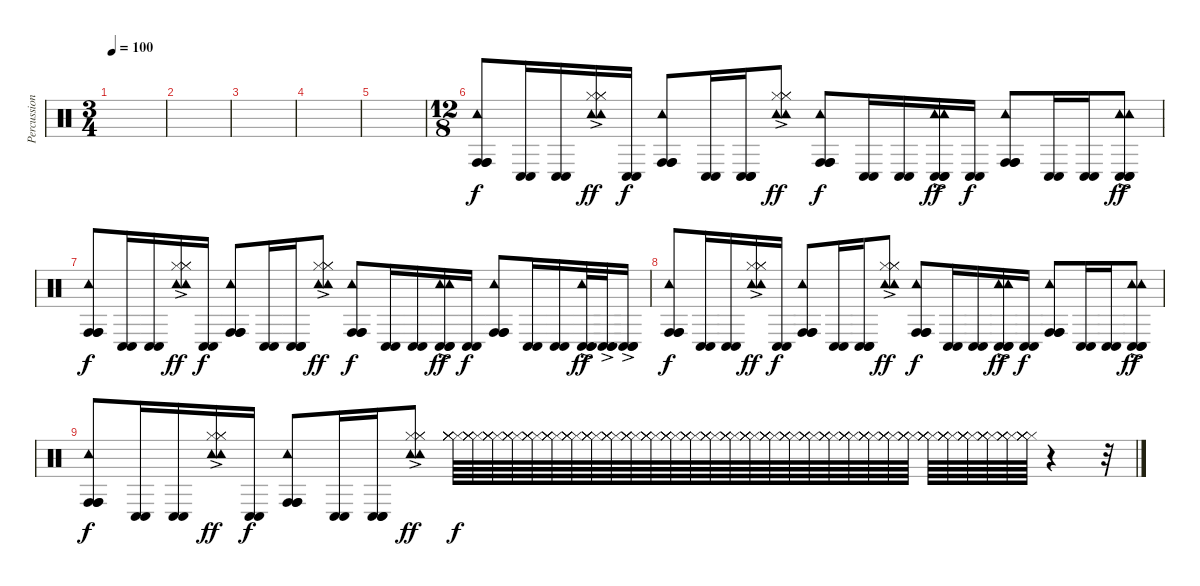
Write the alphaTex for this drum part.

\track ("Percussion" "Percussion") {instrument percussion}
\staff {score}
\articulation defaults
\ts (3 4)
\tempo 100
\clef neutral
\ks c
|
|
|
|
|
\ts (12 8)
("Tambourine (hit)" "Conga high (hit)" "Conga high (hit)" "Conga high (hit)").8 ("Conga low (hit)" "Conga low (hit)").16 ("Conga low (hit)" "Conga low (hit)").16 ("Tambourine (hit)" "Tambourine (hit)" "Hi-Hat (closed)" "Hi-Hat (closed)" "Hi-Hat (closed)"{ac}).16{dy ff} ("Conga low (hit)" "Conga low (hit)").16{dy f} ("Tambourine (hit)" "Conga high (hit)" "Conga high (hit)" "Conga high (hit)").8 ("Conga low (hit)" "Conga low (hit)").16 ("Conga low (hit)" "Conga low (hit)" "Conga low (hit)").16 ("Tambourine (hit)" "Tambourine (hit)" "Hi-Hat (closed)" "Hi-Hat (closed)" "Hi-Hat (closed)"{ac}).8{dy ff} ("Tambourine (hit)" "Conga high (hit)" "Conga high (hit)" "Conga high (hit)").8{dy f} ("Conga low (hit)" "Conga low (hit)").16 ("Conga low (hit)" "Conga low (hit)").16 ("Tambourine (hit)" "Tambourine (hit)" "Conga low (hit)" "Conga low (hit)" "Conga low (hit)"{ac}).16{dy ff} ("Conga low (hit)" "Conga low (hit)").16{dy f} ("Tambourine (hit)" "Conga high (hit)" "Conga high (hit)" "Conga high (hit)").8 ("Conga low (hit)" "Conga low (hit)").16 ("Conga low (hit)" "Conga low (hit)").16 ("Tambourine (hit)" "Tambourine (hit)" "Conga low (hit)" "Conga low (hit)" "Conga low (hit)"{ac}).8{dy ff} |
("Tambourine (hit)" "Conga high (hit)" "Conga high (hit)" "Conga high (hit)").8{dy f} ("Conga low (hit)" "Conga low (hit)").16 ("Conga low (hit)" "Conga low (hit)").16 ("Tambourine (hit)" "Tambourine (hit)" "Hi-Hat (closed)" "Hi-Hat (closed)" "Hi-Hat (closed)"{ac}).16{dy ff} ("Conga low (hit)" "Conga low (hit)").16{dy f} ("Tambourine (hit)" "Conga high (hit)" "Conga high (hit)" "Conga high (hit)").8 ("Conga low (hit)" "Conga low (hit)").16 ("Conga low (hit)" "Conga low (hit)" "Conga low (hit)").16 ("Tambourine (hit)" "Tambourine (hit)" "Hi-Hat (closed)" "Hi-Hat (closed)" "Hi-Hat (closed)"{ac}).8{dy ff} ("Tambourine (hit)" "Conga high (hit)" "Conga high (hit)" "Conga high (hit)").8{dy f} ("Conga low (hit)" "Conga low (hit)").16 ("Conga low (hit)" "Conga low (hit)").16 ("Tambourine (hit)" "Tambourine (hit)" "Conga low (hit)" "Conga low (hit)" "Conga low (hit)"{ac}).16{dy ff} ("Conga low (hit)" "Conga low (hit)").16{dy f} ("Tambourine (hit)" "Conga high (hit)" "Conga high (hit)" "Conga high (hit)").8 ("Conga low (hit)" "Conga low (hit)").16 ("Conga low (hit)" "Conga low (hit)").16 ("Tambourine (hit)" "Conga low (hit)" "Conga low (hit)" "Conga low (hit)"{ac}).32{dy ff} ("Conga low (hit)" "Conga low (hit)" "Conga low (hit)"{ac}).32 ("Conga low (hit)" "Conga low (hit)" "Conga low (hit)"{ac}).16 |
("Tambourine (hit)" "Conga high (hit)" "Conga high (hit)" "Conga high (hit)").8{dy f} ("Conga low (hit)" "Conga low (hit)").16 ("Conga low (hit)" "Conga low (hit)").16 ("Tambourine (hit)" "Tambourine (hit)" "Hi-Hat (closed)" "Hi-Hat (closed)" "Hi-Hat (closed)"{ac}).16{dy ff} ("Conga low (hit)" "Conga low (hit)").16{dy f} ("Tambourine (hit)" "Conga high (hit)" "Conga high (hit)" "Conga high (hit)").8 ("Conga low (hit)" "Conga low (hit)").16 ("Conga low (hit)" "Conga low (hit)" "Conga low (hit)").16 ("Tambourine (hit)" "Tambourine (hit)" "Hi-Hat (closed)" "Hi-Hat (closed)" "Hi-Hat (closed)"{ac}).8{dy ff} ("Tambourine (hit)" "Conga high (hit)" "Conga high (hit)" "Conga high (hit)").8{dy f} ("Conga low (hit)" "Conga low (hit)").16 ("Conga low (hit)" "Conga low (hit)").16 ("Tambourine (hit)" "Tambourine (hit)" "Conga low (hit)" "Conga low (hit)" "Conga low (hit)"{ac}).16{dy ff} ("Conga low (hit)" "Conga low (hit)").16{dy f} ("Tambourine (hit)" "Conga high (hit)" "Conga high (hit)" "Conga high (hit)").8 ("Conga low (hit)" "Conga low (hit)").16 ("Conga low (hit)" "Conga low (hit)").16 ("Tambourine (hit)" "Tambourine (hit)" "Conga low (hit)" "Conga low (hit)" "Conga low (hit)"{ac}).8{dy ff} |
("Tambourine (hit)" "Conga high (hit)" "Conga high (hit)" "Conga high (hit)").8{dy f} ("Conga low (hit)" "Conga low (hit)").16 ("Conga low (hit)" "Conga low (hit)").16 ("Tambourine (hit)" "Tambourine (hit)" "Hi-Hat (closed)" "Hi-Hat (closed)" "Hi-Hat (closed)"{ac}).16{dy ff} ("Conga low (hit)" "Conga low (hit)").16{dy f} ("Tambourine (hit)" "Conga high (hit)" "Conga high (hit)" "Conga high (hit)").8 ("Conga low (hit)" "Conga low (hit)").16 ("Conga low (hit)" "Conga low (hit)" "Conga low (hit)").16 ("Tambourine (hit)" "Tambourine (hit)" "Hi-Hat (closed)" "Hi-Hat (closed)" "Hi-Hat (closed)"{ac}).8{dy ff} ("Hi-Hat (closed)" "Hi-Hat (closed)" "Hi-Hat (closed)" "Hi-Hat (closed)" "Hi-Hat (closed)").64{dy f} ("Hi-Hat (closed)" "Hi-Hat (closed)" "Hi-Hat (closed)" "Hi-Hat (closed)" "Hi-Hat (closed)").64 ("Hi-Hat (closed)" "Hi-Hat (closed)" "Hi-Hat (closed)" "Hi-Hat (closed)" "Hi-Hat (closed)").64 ("Hi-Hat (closed)" "Hi-Hat (closed)" "Hi-Hat (closed)" "Hi-Hat (closed)" "Hi-Hat (closed)").64 ("Hi-Hat (closed)" "Hi-Hat (closed)" "Hi-Hat (closed)" "Hi-Hat (closed)" "Hi-Hat (closed)").64 ("Hi-Hat (closed)" "Hi-Hat (closed)" "Hi-Hat (closed)" "Hi-Hat (closed)" "Hi-Hat (closed)").64 ("Hi-Hat (closed)" "Hi-Hat (closed)" "Hi-Hat (closed)" "Hi-Hat (closed)" "Hi-Hat (closed)").64{volume 12} ("Hi-Hat (closed)" "Hi-Hat (closed)" "Hi-Hat (closed)" "Hi-Hat (closed)" "Hi-Hat (closed)").64 ("Hi-Hat (closed)" "Hi-Hat (closed)" "Hi-Hat (closed)" "Hi-Hat (closed)" "Hi-Hat (closed)").64{volume 10} ("Hi-Hat (closed)" "Hi-Hat (closed)" "Hi-Hat (closed)" "Hi-Hat (closed)" "Hi-Hat (closed)").64 ("Hi-Hat (closed)" "Hi-Hat (closed)" "Hi-Hat (closed)" "Hi-Hat (closed)" "Hi-Hat (closed)").64 ("Hi-Hat (closed)" "Hi-Hat (closed)" "Hi-Hat (closed)" "Hi-Hat (closed)" "Hi-Hat (closed)").64{volume 9} ("Hi-Hat (closed)" "Hi-Hat (closed)" "Hi-Hat (closed)" "Hi-Hat (closed)" "Hi-Hat (closed)").64 ("Hi-Hat (closed)" "Hi-Hat (closed)" "Hi-Hat (closed)" "Hi-Hat (closed)" "Hi-Hat (closed)").64 ("Hi-Hat (closed)" "Hi-Hat (closed)" "Hi-Hat (closed)" "Hi-Hat (closed)" "Hi-Hat (closed)").64{volume 8} ("Hi-Hat (closed)" "Hi-Hat (closed)" "Hi-Hat (closed)" "Hi-Hat (closed)" "Hi-Hat (closed)").64 ("Hi-Hat (closed)" "Hi-Hat (closed)" "Hi-Hat (closed)" "Hi-Hat (closed)" "Hi-Hat (closed)").64 ("Hi-Hat (closed)" "Hi-Hat (closed)" "Hi-Hat (closed)" "Hi-Hat (closed)" "Hi-Hat (closed)").64{volume 7} ("Hi-Hat (closed)" "Hi-Hat (closed)" "Hi-Hat (closed)" "Hi-Hat (closed)" "Hi-Hat (closed)").64 ("Hi-Hat (closed)" "Hi-Hat (closed)" "Hi-Hat (closed)" "Hi-Hat (closed)" "Hi-Hat (closed)").64 ("Hi-Hat (closed)" "Hi-Hat (closed)" "Hi-Hat (closed)" "Hi-Hat (closed)" "Hi-Hat (closed)").64{volume 6} ("Hi-Hat (closed)" "Hi-Hat (closed)" "Hi-Hat (closed)" "Hi-Hat (closed)" "Hi-Hat (closed)").64 ("Hi-Hat (closed)" "Hi-Hat (closed)" "Hi-Hat (closed)" "Hi-Hat (closed)" "Hi-Hat (closed)").64 ("Hi-Hat (closed)" "Hi-Hat (closed)" "Hi-Hat (closed)" "Hi-Hat (closed)" "Hi-Hat (closed)").64{volume 5} ("Hi-Hat (closed)" "Hi-Hat (closed)" "Hi-Hat (closed)" "Hi-Hat (closed)" "Hi-Hat (closed)").64 ("Hi-Hat (closed)" "Hi-Hat (closed)" "Hi-Hat (closed)" "Hi-Hat (closed)" "Hi-Hat (closed)").64 ("Hi-Hat (closed)" "Hi-Hat (closed)" "Hi-Hat (closed)" "Hi-Hat (closed)" "Hi-Hat (closed)").64{volume 4} ("Hi-Hat (closed)" "Hi-Hat (closed)" "Hi-Hat (closed)" "Hi-Hat (closed)" "Hi-Hat (closed)").64 ("Hi-Hat (closed)" "Hi-Hat (closed)" "Hi-Hat (closed)" "Hi-Hat (closed)" "Hi-Hat (closed)").64 ("Hi-Hat (closed)" "Hi-Hat (closed)" "Hi-Hat (closed)" "Hi-Hat (closed)" "Hi-Hat (closed)").64{volume 2} r.4 r.32
